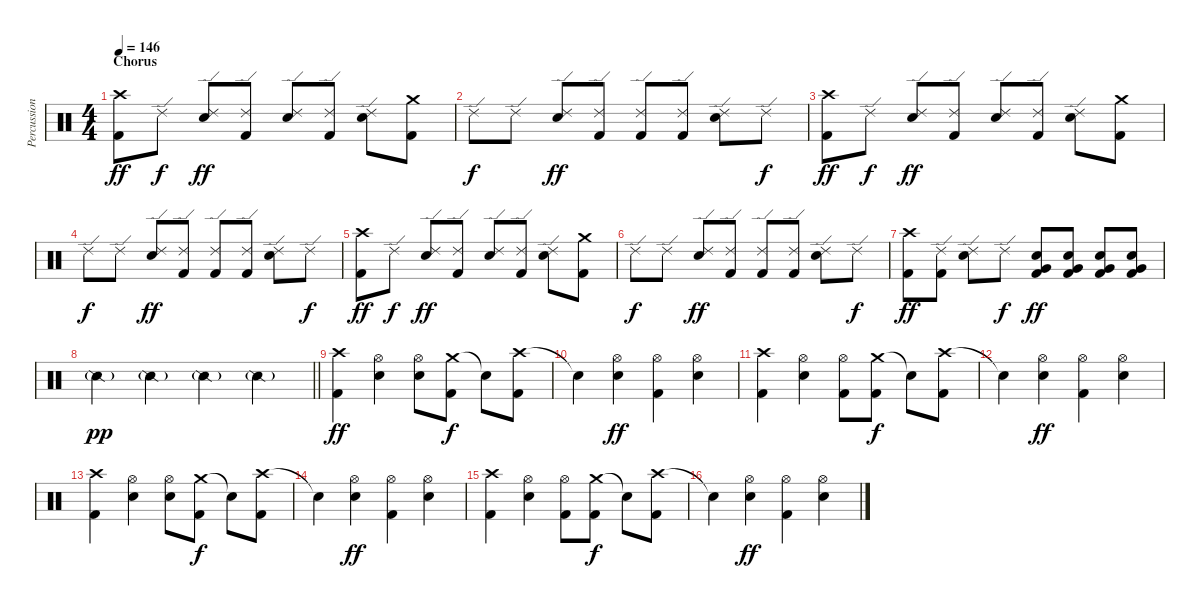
\track ("Percussion" "Percussion") {instrument percussion}
\staff {score}
\articulation defaults
\ts (4 4)
\section ("" "Chorus")
\tempo 146
\clef neutral
\ks c
("Crash high (hit)" "Kick (hit) 2").8{dy ff} "Ride (edge) 2".8{dy f} ("Ride (edge) 2" "Snare (hit) 2").8{dy ff} ("Ride (edge) 2" "Kick (hit) 2").8 ("Ride (edge) 2" "Snare (hit) 2").8 ("Ride (edge) 2" "Kick (hit) 2").8 ("Ride (edge) 2" "Snare (hit) 2").8 ("Crash medium (hit)" "Kick (hit) 2").8 |
"Ride (edge) 2".8{dy f} "Ride (edge) 2".8 ("Ride (edge) 2" "Snare (hit) 2").8{dy ff} ("Ride (edge) 2" "Kick (hit) 2").8 ("Ride (edge) 2" "Kick (hit) 2").8 ("Ride (edge) 2" "Kick (hit) 2").8 ("Ride (edge) 2" "Snare (hit) 2").8 "Ride (edge) 2".8{dy f} |
("Crash high (hit)" "Kick (hit) 2").8{dy ff} "Ride (edge) 2".8{dy f} ("Ride (edge) 2" "Snare (hit) 2").8{dy ff} ("Ride (edge) 2" "Kick (hit) 2").8 ("Ride (edge) 2" "Snare (hit) 2").8 ("Ride (edge) 2" "Kick (hit) 2").8 ("Ride (edge) 2" "Snare (hit) 2").8 ("Crash medium (hit)" "Kick (hit) 2").8 |
"Ride (edge) 2".8{dy f} "Ride (edge) 2".8 ("Ride (edge) 2" "Snare (hit) 2").8{dy ff} ("Ride (edge) 2" "Kick (hit) 2").8 ("Ride (edge) 2" "Kick (hit) 2").8 ("Ride (edge) 2" "Kick (hit) 2").8 ("Ride (edge) 2" "Snare (hit) 2").8 "Ride (edge) 2".8{dy f} |
("Crash high (hit)" "Kick (hit) 2").8{dy ff} "Ride (edge) 2".8{dy f} ("Ride (edge) 2" "Snare (hit) 2").8{dy ff} ("Ride (edge) 2" "Kick (hit) 2").8 ("Ride (edge) 2" "Snare (hit) 2").8 ("Ride (edge) 2" "Kick (hit) 2").8 ("Ride (edge) 2" "Snare (hit) 2").8 ("Crash medium (hit)" "Kick (hit) 2").8 |
"Ride (edge) 2".8{dy f} "Ride (edge) 2".8 ("Ride (edge) 2" "Snare (hit) 2").8{dy ff} ("Ride (edge) 2" "Kick (hit) 2").8 ("Ride (edge) 2" "Kick (hit) 2").8 ("Ride (edge) 2" "Kick (hit) 2").8 ("Ride (edge) 2" "Snare (hit) 2").8 "Ride (edge) 2".8{dy f} |
("Crash high (hit)" "Kick (hit) 2").8{dy ff} ("Ride (edge) 2" "Kick (hit) 2").8 ("Ride (edge) 2" "Snare (hit) 2").8 "Ride (edge) 2".8{dy f} ("Very Low Tom (hit)" "Snare (hit) 2" "Kick (hit) 2").8{dy ff} ("Very Low Tom (hit)" "Snare (hit) 2" "Kick (hit) 2").8 ("Very Low Tom (hit)" "Snare (hit) 2" "Kick (hit) 2").8 ("Very Low Tom (hit)" "Snare (hit) 2" "Kick (hit) 2").8 |
\barLineRight lightlight "Snare (side stick) 2"{g}.4{dy pp} "Snare (side stick) 2"{g}.4 "Snare (side stick) 2"{g}.4 "Snare (side stick) 2"{g}.4
|
("Crash high (hit)" "Kick (hit) 2").4{dy ff} ("Hi-Hat (open)" "Snare (hit) 2").4 ("Hi-Hat (open)" "Snare (hit) 2").8 ("Crash medium (hit)" "Kick (hit) 2").8{dy f} "Snare (hit)"{t}.8 ("Crash high (hit)" "Kick (hit) 2").8 |
"Snare (hit)"{t}.4 ("Hi-Hat (open)" "Snare (hit) 2").4{dy ff} ("Hi-Hat (open)" "Kick (hit) 2").4 ("Hi-Hat (open)" "Snare (hit) 2").4 |
("Crash high (hit)" "Kick (hit) 2").4 ("Hi-Hat (open)" "Snare (hit) 2").4 ("Hi-Hat (open)" "Kick (hit) 2").8 ("Crash medium (hit)" "Kick (hit) 2").8{dy f} "Snare (hit)"{t}.8 ("Crash high (hit)" "Kick (hit) 2").8 |
"Snare (hit)"{t}.4 ("Hi-Hat (open)" "Snare (hit) 2").4{dy ff} ("Hi-Hat (open)" "Kick (hit) 2").4 ("Hi-Hat (open)" "Snare (hit) 2").4 |
("Crash high (hit)" "Kick (hit) 2").4 ("Hi-Hat (open)" "Snare (hit) 2").4 ("Hi-Hat (open)" "Snare (hit) 2").8 ("Crash medium (hit)" "Kick (hit) 2").8{dy f} "Snare (hit)"{t}.8 ("Crash high (hit)" "Kick (hit) 2").8 |
"Snare (hit)"{t}.4 ("Hi-Hat (open)" "Snare (hit) 2").4{dy ff} ("Hi-Hat (open)" "Kick (hit) 2").4 ("Hi-Hat (open)" "Snare (hit) 2").4 |
("Crash high (hit)" "Kick (hit) 2").4 ("Hi-Hat (open)" "Snare (hit) 2").4 ("Hi-Hat (open)" "Kick (hit) 2").8 ("Crash medium (hit)" "Kick (hit) 2").8{dy f} "Snare (hit)"{t}.8 ("Crash high (hit)" "Kick (hit) 2").8 |
"Snare (hit)"{t}.4 ("Hi-Hat (open)" "Snare (hit) 2").4{dy ff} ("Hi-Hat (open)" "Kick (hit) 2").4 ("Hi-Hat (open)" "Snare (hit) 2").4
